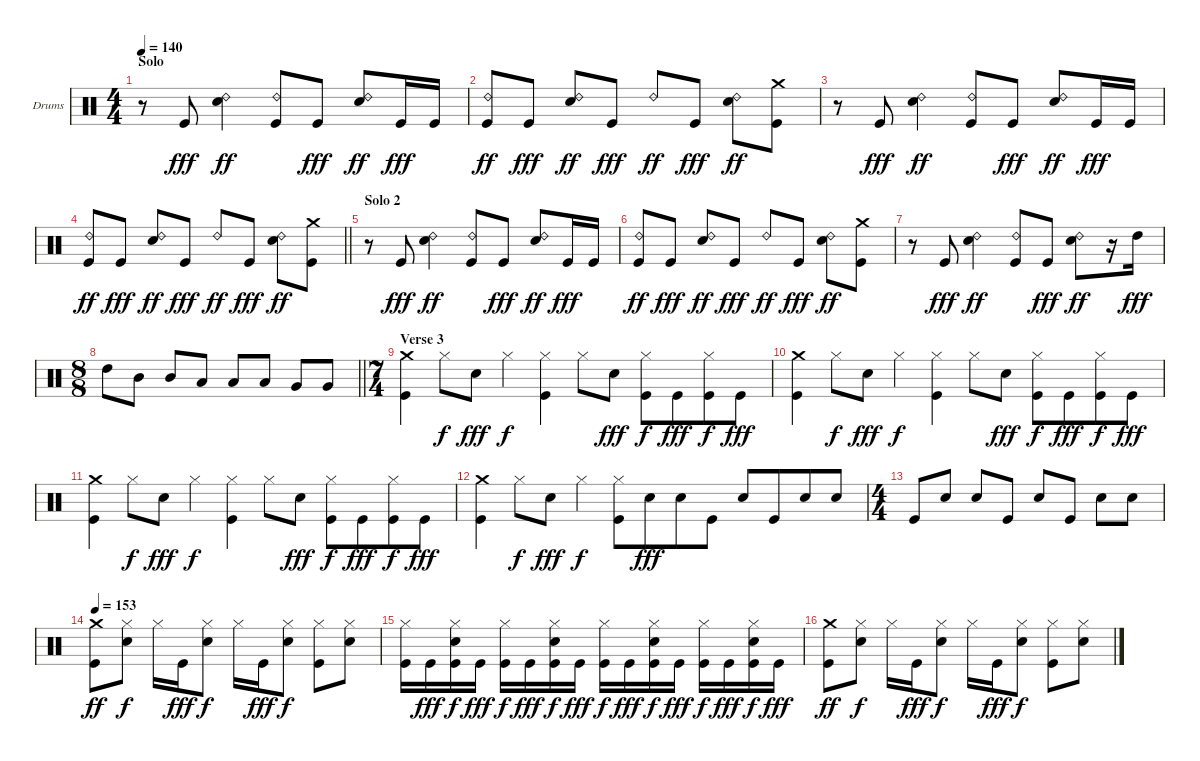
\bracketExtendMode groupsimilarinstruments
\firstSystemTrackNameOrientation horizontal
\otherSystemsTrackNameOrientation horizontal
\track ("Drumkit" "Drums") {instrument percussion}
\staff {score}
\articulation defaults
\ts (4 4)
\section ("" "Solo")
\tempo 140
\clef neutral
\ks c
r.8{dy ff} "Kick (hit)".8{dy fff} ("Ride (bell) 2" "Snare (hit) 2").4{dy ff} ("Ride (bell) 2" "Kick (hit)").8 "Kick (hit)".8{dy fff} ("Ride (bell) 2" "Snare (hit) 2").8{dy ff} "Kick (hit)".16{dy fff} "Kick (hit)".16 |
("Ride (bell) 2" "Kick (hit)").8{dy ff} "Kick (hit)".8{dy fff} ("Ride (bell) 2" "Snare (hit) 2").8{dy ff} "Kick (hit)".8{dy fff} "Ride (bell) 2".8{dy ff} "Kick (hit)".8{dy fff} ("Ride (bell) 2" "Snare (hit) 2").8{dy ff} ("Crash medium (hit)" "Kick (hit)").8 |
r.8 "Kick (hit)".8{dy fff} ("Ride (bell) 2" "Snare (hit) 2").4{dy ff} ("Ride (bell) 2" "Kick (hit)").8 "Kick (hit)".8{dy fff} ("Ride (bell) 2" "Snare (hit) 2").8{dy ff} "Kick (hit)".16{dy fff} "Kick (hit)".16 |
\barLineRight lightlight
("Ride (bell) 2" "Kick (hit)").8{dy ff} "Kick (hit)".8{dy fff} ("Ride (bell) 2" "Snare (hit) 2").8{dy ff} "Kick (hit)".8{dy fff} "Ride (bell) 2".8{dy ff} "Kick (hit)".8{dy fff} ("Ride (bell) 2" "Snare (hit) 2").8{dy ff} ("Crash medium (hit)" "Kick (hit)").8 |
\section ("" "Solo 2")
r.8 "Kick (hit)".8{dy fff} ("Ride (bell) 2" "Snare (hit) 2").4{dy ff} ("Ride (bell) 2" "Kick (hit)").8 "Kick (hit)".8{dy fff} ("Ride (bell) 2" "Snare (hit) 2").8{dy ff} "Kick (hit)".16{dy fff} "Kick (hit)".16 |
("Ride (bell) 2" "Kick (hit)").8{dy ff} "Kick (hit)".8{dy fff} ("Ride (bell) 2" "Snare (hit) 2").8{dy ff} "Kick (hit)".8{dy fff} "Ride (bell) 2".8{dy ff} "Kick (hit)".8{dy fff} ("Ride (bell) 2" "Snare (hit) 2").8{dy ff} ("Crash medium (hit)" "Kick (hit)").8 |
r.8 "Kick (hit)".8{dy fff} ("Ride (bell) 2" "Snare (hit) 2").4{dy ff} ("Ride (bell) 2" "Kick (hit)").8 "Kick (hit)".8{dy fff} ("Ride (bell) 2" "Snare (hit) 2").8{dy ff} r.16 "High Tom (hit)".16{dy fff} |
\ts (8 8)
\beaming (8 2 2 2 2)
\barLineRight lightlight "High Tom (hit)".8 "Mid Tom (hit)".8 "Mid Tom (hit)".8 "Low Tom (hit)".8 "Low Tom (hit)".8 "Low Tom (hit)".8 "Very Low Tom (hit)".8 "Very Low Tom (hit)".8
|
\ts (7 4)
\beaming (8 6 4 4)
\section ("" "Verse 3")
("Crash medium (hit)" "Kick (hit)").4 "Hi-Hat (closed)".8{dy f} "Snare (hit) 2".8{dy fff} "Hi-Hat (closed)".4{dy f} ("Hi-Hat (closed)" "Kick (hit)").4 "Hi-Hat (closed)".8 "Snare (hit) 2".8{dy fff} ("Hi-Hat (closed)" "Kick (hit)").8{dy f} "Kick (hit)".8{dy fff} ("Hi-Hat (closed)" "Kick (hit)").8{dy f} "Kick (hit)".8{dy fff} |
("Crash medium (hit)" "Kick (hit)").4 "Hi-Hat (closed)".8{dy f} "Snare (hit) 2".8{dy fff} "Hi-Hat (closed)".4{dy f} ("Hi-Hat (closed)" "Kick (hit)").4 "Hi-Hat (closed)".8 "Snare (hit) 2".8{dy fff} ("Hi-Hat (closed)" "Kick (hit)").8{dy f} "Kick (hit)".8{dy fff} ("Hi-Hat (closed)" "Kick (hit)").8{dy f} "Kick (hit)".8{dy fff} |
("Crash medium (hit)" "Kick (hit)").4 "Hi-Hat (closed)".8{dy f} "Snare (hit) 2".8{dy fff} "Hi-Hat (closed)".4{dy f} ("Hi-Hat (closed)" "Kick (hit)").4 "Hi-Hat (closed)".8 "Snare (hit) 2".8{dy fff} ("Hi-Hat (closed)" "Kick (hit)").8{dy f} "Kick (hit)".8{dy fff} ("Hi-Hat (closed)" "Kick (hit)").8{dy f} "Kick (hit)".8{dy fff} |
("Crash medium (hit)" "Kick (hit)").4 "Hi-Hat (closed)".8{dy f} "Snare (hit) 2".8{dy fff} "Hi-Hat (closed)".4{dy f} ("Hi-Hat (closed)" "Kick (hit)").8 "Snare (hit) 2".8{dy fff} "Snare (hit) 2".8 "Kick (hit)".8 "Snare (hit) 2".8 "Kick (hit)".8 "Snare (hit) 2".8 "Snare (hit) 2".8 |
\ts (4 4)
\beaming (8 2 2 2 2)
"Kick (hit)".8 "Snare (hit) 2".8 "Snare (hit) 2".8 "Kick (hit)".8 "Snare (hit) 2".8 "Kick (hit)".8 "Snare (hit) 2".8 "Snare (hit) 2".8 |
\tempo 153
("Crash medium (hit)" "Kick (hit)").8{dy ff} ("Hi-Hat (closed)" "Snare (hit) 2").8{dy f} "Hi-Hat (closed)".16 "Kick (hit)".16{dy fff} ("Hi-Hat (closed)" "Snare (hit) 2").8{dy f} "Hi-Hat (closed)".16 "Kick (hit)".16{dy fff} ("Hi-Hat (closed)" "Snare (hit) 2").8{dy f} ("Hi-Hat (closed)" "Kick (hit)").8 ("Hi-Hat (closed)" "Snare (hit) 2").8 |
("Hi-Hat (closed)" "Kick (hit)").16 "Kick (hit)".16{dy fff} ("Hi-Hat (closed)" "Snare (hit) 2" "Kick (hit)").16{dy f} "Kick (hit)".16{dy fff} ("Hi-Hat (closed)" "Kick (hit)").16{dy f} "Kick (hit)".16{dy fff} ("Hi-Hat (closed)" "Snare (hit) 2" "Kick (hit)").16{dy f} "Kick (hit)".16{dy fff} ("Hi-Hat (closed)" "Kick (hit)").16{dy f} "Kick (hit)".16{dy fff} ("Hi-Hat (closed)" "Snare (hit) 2" "Kick (hit)").16{dy f} "Kick (hit)".16{dy fff} ("Hi-Hat (closed)" "Kick (hit)").16{dy f} "Kick (hit)".16{dy fff} ("Hi-Hat (closed)" "Snare (hit) 2" "Kick (hit)").16{dy f} "Kick (hit)".16{dy fff} |
("Crash medium (hit)" "Kick (hit)").8{dy ff} ("Hi-Hat (closed)" "Snare (hit) 2").8{dy f} "Hi-Hat (closed)".16 "Kick (hit)".16{dy fff} ("Hi-Hat (closed)" "Snare (hit) 2").8{dy f} "Hi-Hat (closed)".16 "Kick (hit)".16{dy fff} ("Hi-Hat (closed)" "Snare (hit) 2").8{dy f} ("Hi-Hat (closed)" "Kick (hit)").8 ("Hi-Hat (closed)" "Snare (hit) 2").8
